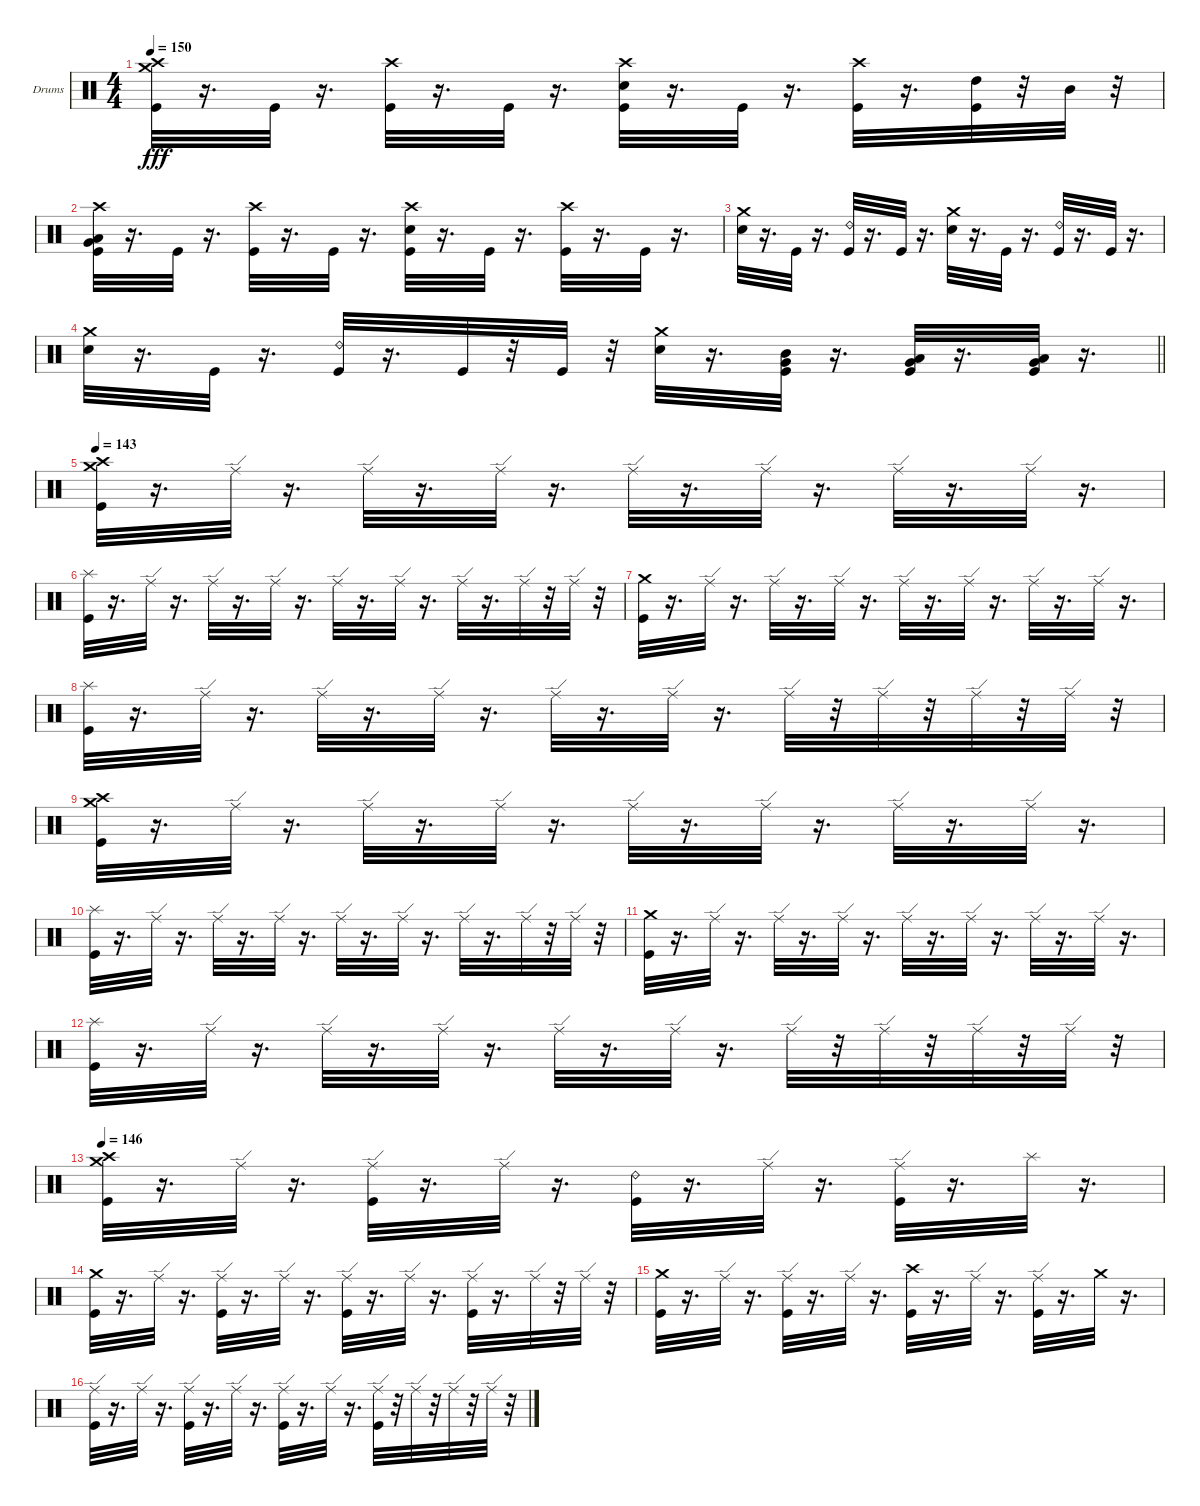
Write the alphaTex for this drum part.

\bracketExtendMode groupsimilarinstruments
\firstSystemTrackNameOrientation horizontal
\otherSystemsTrackNameOrientation horizontal
\track ("Dave McClain" "Drums") {mute instrument percussion}
\staff {score}
\articulation defaults
\ts (4 4)
\tempo 150
\clef neutral
\ks c
("Crash medium (hit)" "Crash high (hit)" "Kick (hit)").32{dy fff} r.16{d} "Kick (hit)".32 r.16{d} ("Crash high (hit)" "Kick (hit)").32 r.16{d} "Kick (hit)".32 r.16{d} ("Crash high (hit)" "Snare (hit) 2" "Kick (hit)").32 r.16{d} "Kick (hit)".32 r.16{d} ("Crash high (hit)" "Kick (hit)").32 r.16{d} ("High Tom (hit)" "Kick (hit)").32 r.32 "Mid Tom (hit)".32 r.32 |
("Very Low Tom (hit)" "Low Tom (hit)" "Crash high (hit)" "Kick (hit)").32 r.16{d} "Kick (hit)".32 r.16{d} ("Crash high (hit)" "Kick (hit)").32 r.16{d} "Kick (hit)".32 r.16{d} ("Crash high (hit)" "Snare (hit) 2" "Kick (hit)").32 r.16{d} "Kick (hit)".32 r.16{d} ("Crash high (hit)" "Kick (hit)").32 r.16{d} "Kick (hit)".32 r.16{d} |
("Snare (hit) 2" "Crash medium (hit)").32 r.16{d} "Kick (hit)".32 r.16{d} ("Ride (bell) 2" "Kick (hit)").32 r.16{d} "Kick (hit)".32 r.16{d} ("Crash medium (hit)" "Snare (hit) 2").32 r.16{d} "Kick (hit)".32 r.16{d} ("Ride (bell) 2" "Kick (hit)").32 r.16{d} "Kick (hit)".32 r.16{d} |
\barLineRight lightlight
("Crash medium (hit)" "Snare (hit) 2").32 r.16{d} "Kick (hit)".32 r.16{d} ("Ride (bell) 2" "Kick (hit)").32 r.16{d} "Kick (hit)".32 r.32 "Kick (hit)".32 r.32 ("Crash medium (hit)" "Snare (hit) 2").32 r.16{d} ("Mid Tom (hit)" "Very Low Tom (hit)" "Kick (hit)").32 r.16{d} ("Low Tom (hit)" "Very Low Tom (hit)" "Kick (hit)").32 r.16{d} ("Low Tom (hit)" "Very Low Tom (hit)" "Kick (hit)").32 r.16{d} |
\tempo 143
("Crash high (hit)" "Crash medium (hit)" "Kick (hit)").32 r.16{d} "Ride (edge)".32 r.16{d} "Ride (edge)".32 r.16{d} "Ride (edge)".32 r.16{d} "Ride (edge)".32 r.16{d} "Ride (edge)".32 r.16{d} "Ride (edge)".32 r.16{d} "Ride (edge)".32 r.16{d} |
("Splash (hit)" "Kick (hit)").32 r.16{d} "Ride (edge)".32 r.16{d} "Ride (edge)".32 r.16{d} "Ride (edge)".32 r.16{d} "Ride (edge)".32 r.16{d} "Ride (edge)".32 r.16{d} "Ride (edge)".32 r.16{d} "Ride (edge)".32 r.32 "Ride (edge)".32 r.32 |
("Crash medium (hit)" "Kick (hit)").32 r.16{d} "Ride (edge)".32 r.16{d} "Ride (edge)".32 r.16{d} "Ride (edge)".32 r.16{d} "Ride (edge)".32 r.16{d} "Ride (edge)".32 r.16{d} "Ride (edge)".32 r.16{d} "Ride (edge)".32 r.16{d} |
("Splash (hit)" "Kick (hit)").32 r.16{d} "Ride (edge)".32 r.16{d} "Ride (edge)".32 r.16{d} "Ride (edge)".32 r.16{d} "Ride (edge)".32 r.16{d} "Ride (edge)".32 r.16{d} "Ride (edge)".32 r.32 "Ride (edge)".32 r.32 "Ride (edge)".32 r.32 "Ride (edge)".32 r.32 |
("Crash high (hit)" "Crash medium (hit)" "Kick (hit)").32 r.16{d} "Ride (edge)".32 r.16{d} "Ride (edge)".32 r.16{d} "Ride (edge)".32 r.16{d} "Ride (edge)".32 r.16{d} "Ride (edge)".32 r.16{d} "Ride (edge)".32 r.16{d} "Ride (edge)".32 r.16{d} |
("Splash (hit)" "Kick (hit)").32 r.16{d} "Ride (edge)".32 r.16{d} "Ride (edge)".32 r.16{d} "Ride (edge)".32 r.16{d} "Ride (edge)".32 r.16{d} "Ride (edge)".32 r.16{d} "Ride (edge)".32 r.16{d} "Ride (edge)".32 r.32 "Ride (edge)".32 r.32 |
("Crash medium (hit)" "Kick (hit)").32 r.16{d} "Ride (edge)".32 r.16{d} "Ride (edge)".32 r.16{d} "Ride (edge)".32 r.16{d} "Ride (edge)".32 r.16{d} "Ride (edge)".32 r.16{d} "Ride (edge)".32 r.16{d} "Ride (edge)".32 r.16{d} |
("Splash (hit)" "Kick (hit)").32 r.16{d} "Ride (edge)".32 r.16{d} "Ride (edge)".32 r.16{d} "Ride (edge)".32 r.16{d} "Ride (edge)".32 r.16{d} "Ride (edge)".32 r.16{d} "Ride (edge)".32 r.32 "Ride (edge)".32 r.32 "Ride (edge)".32 r.32 "Ride (edge)".32 r.32 |
\tempo 146
("Crash high (hit)" "Crash medium (hit)" "Kick (hit)").32 r.16{d} "Ride (edge)".32 r.16{d} ("Kick (hit)" "Ride (edge)").32 r.16{d} "Ride (edge)".32 r.16{d} ("Ride (bell) 2" "Kick (hit)").32 r.16{d} "Ride (edge)".32 r.16{d} ("Kick (hit)" "Ride (edge)").32 r.16{d} "Splash (hit)".32 r.16{d} |
("Crash medium (hit)" "Kick (hit)").32 r.16{d} "Ride (edge)".32 r.16{d} ("Kick (hit)" "Ride (edge)").32 r.16{d} "Ride (edge)".32 r.16{d} ("Kick (hit)" "Ride (edge)").32 r.16{d} "Ride (edge)".32 r.16{d} ("Kick (hit)" "Ride (edge)").32 r.16{d} "Ride (edge)".32 r.32 "Ride (edge)".32 r.32 |
("Crash medium (hit)" "Kick (hit)").32 r.16{d} "Ride (edge)".32 r.16{d} ("Kick (hit)" "Ride (edge)").32 r.16{d} "Ride (edge)".32 r.16{d} ("Crash high (hit)" "Kick (hit)").32 r.16{d} "Ride (edge)".32 r.16{d} ("Kick (hit)" "Ride (edge)").32 r.16{d} "Crash medium (hit)".32 r.16{d} |
("Ride (edge)" "Kick (hit)").32 r.16{d} "Ride (edge)".32 r.16{d} ("Kick (hit)" "Ride (edge)").32 r.16{d} "Ride (edge)".32 r.16{d} ("Kick (hit)" "Ride (edge)").32 r.16{d} "Ride (edge)".32 r.16{d} ("Kick (hit)" "Ride (edge)").32 r.32 "Ride (edge)".32 r.32 "Ride (edge)".32 r.32 "Ride (edge)".32 r.32
